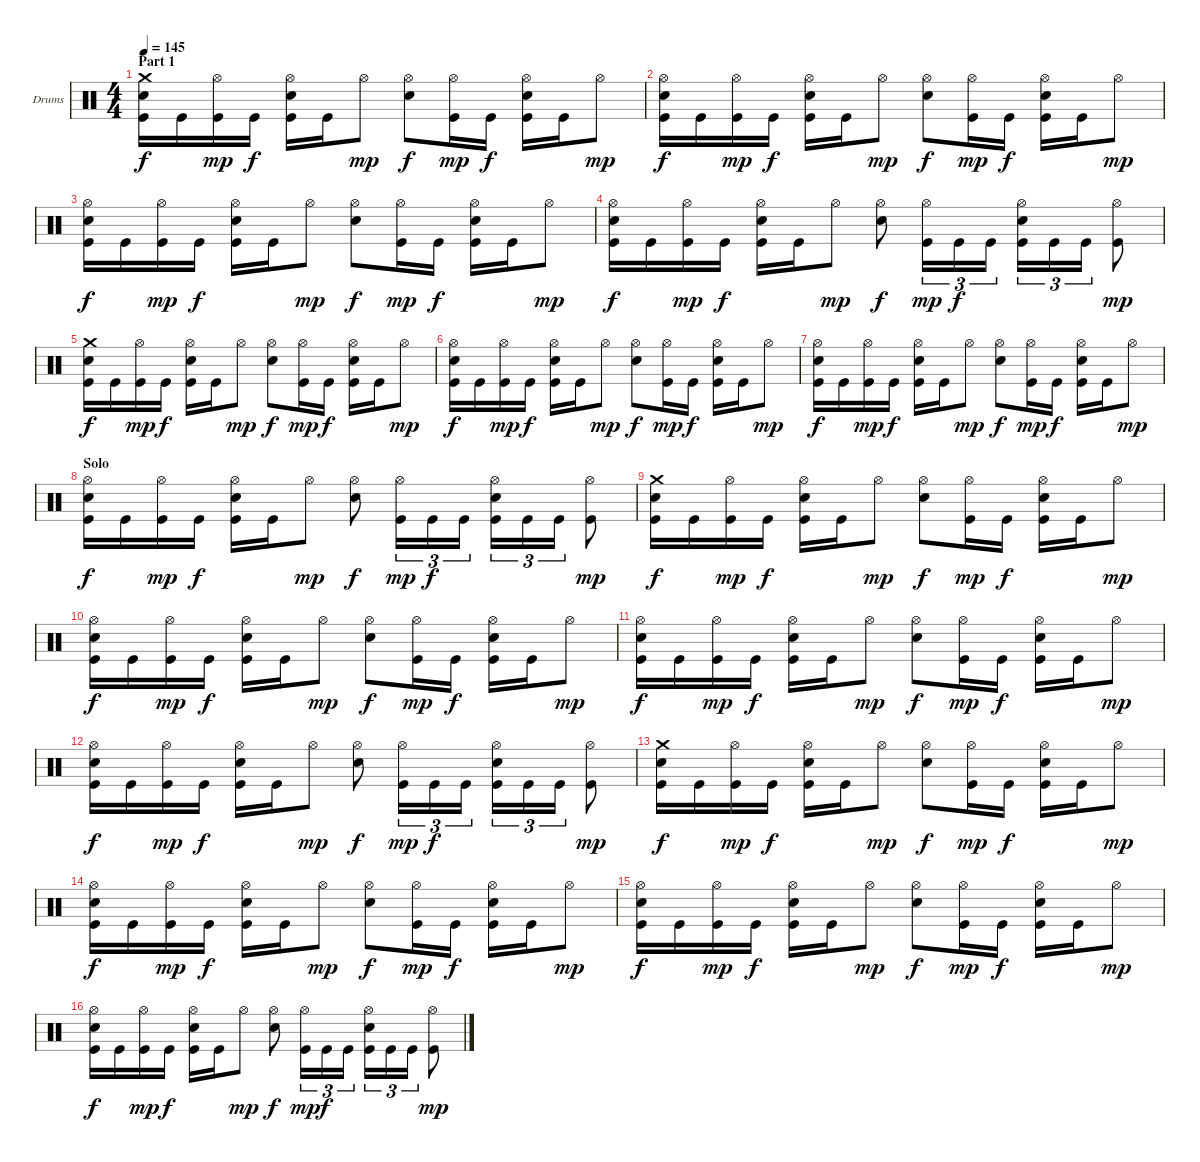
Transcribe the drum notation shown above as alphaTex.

\bracketExtendMode groupsimilarinstruments
\firstSystemTrackNameOrientation horizontal
\otherSystemsTrackNameOrientation horizontal
\track ("Drumkit" "Drums") {instrument percussion}
\staff {score}
\articulation defaults
\ts (4 4)
\section ("" "Part 1")
\tempo 145
\clef neutral
\ks c
("Crash medium (hit)" "Snare (hit) 2" "Kick (hit)").16{dy f} "Kick (hit)".16 ("Hi-Hat (open)" "Kick (hit)").16{dy mp} "Kick (hit)".16{dy f} ("Hi-Hat (open)" "Snare (hit) 2" "Kick (hit)").16 "Kick (hit)".16 "Hi-Hat (open)".8{dy mp} ("Hi-Hat (open)" "Snare (hit) 2").8{dy f} ("Hi-Hat (open)" "Kick (hit)").16{dy mp} "Kick (hit)".16{dy f} ("Hi-Hat (open)" "Snare (hit) 2" "Kick (hit)").16 "Kick (hit)".16 "Hi-Hat (open)".8{dy mp} |
("Hi-Hat (open)" "Snare (hit) 2" "Kick (hit)").16{dy f} "Kick (hit)".16 ("Hi-Hat (open)" "Kick (hit)").16{dy mp} "Kick (hit)".16{dy f} ("Hi-Hat (open)" "Snare (hit) 2" "Kick (hit)").16 "Kick (hit)".16 "Hi-Hat (open)".8{dy mp} ("Hi-Hat (open)" "Snare (hit) 2").8{dy f} ("Hi-Hat (open)" "Kick (hit)").16{dy mp} "Kick (hit)".16{dy f} ("Hi-Hat (open)" "Snare (hit) 2" "Kick (hit)").16 "Kick (hit)".16 "Hi-Hat (open)".8{dy mp} |
("Hi-Hat (open)" "Snare (hit) 2" "Kick (hit)").16{dy f} "Kick (hit)".16 ("Hi-Hat (open)" "Kick (hit)").16{dy mp} "Kick (hit)".16{dy f} ("Hi-Hat (open)" "Snare (hit) 2" "Kick (hit)").16 "Kick (hit)".16 "Hi-Hat (open)".8{dy mp} ("Hi-Hat (open)" "Snare (hit) 2").8{dy f} ("Hi-Hat (open)" "Kick (hit)").16{dy mp} "Kick (hit)".16{dy f} ("Hi-Hat (open)" "Snare (hit) 2" "Kick (hit)").16 "Kick (hit)".16 "Hi-Hat (open)".8{dy mp} |
("Hi-Hat (open)" "Snare (hit) 2" "Kick (hit)").16{dy f} "Kick (hit)".16 ("Hi-Hat (open)" "Kick (hit)").16{dy mp} "Kick (hit)".16{dy f} ("Hi-Hat (open)" "Snare (hit) 2" "Kick (hit)").16 "Kick (hit)".16 "Hi-Hat (open)".8{dy mp} ("Hi-Hat (open)" "Snare (hit) 2").8{dy f} ("Hi-Hat (open)" "Kick (hit)").16{tu (3 2) dy mp} "Kick (hit)".16{tu (3 2) dy f} "Kick (hit)".16{tu (3 2)} ("Hi-Hat (open)" "Snare (hit) 2" "Kick (hit)").16{tu (3 2)} "Kick (hit)".16{tu (3 2)} "Kick (hit)".16{tu (3 2)} ("Hi-Hat (open)" "Kick (hit)").8{dy mp} |
("Crash medium (hit)" "Snare (hit) 2" "Kick (hit)").16{dy f} "Kick (hit)".16 ("Hi-Hat (open)" "Kick (hit)").16{dy mp} "Kick (hit)".16{dy f} ("Hi-Hat (open)" "Snare (hit) 2" "Kick (hit)").16 "Kick (hit)".16 "Hi-Hat (open)".8{dy mp} ("Hi-Hat (open)" "Snare (hit) 2").8{dy f} ("Hi-Hat (open)" "Kick (hit)").16{dy mp} "Kick (hit)".16{dy f} ("Hi-Hat (open)" "Snare (hit) 2" "Kick (hit)").16 "Kick (hit)".16 "Hi-Hat (open)".8{dy mp} |
("Hi-Hat (open)" "Snare (hit) 2" "Kick (hit)").16{dy f} "Kick (hit)".16 ("Hi-Hat (open)" "Kick (hit)").16{dy mp} "Kick (hit)".16{dy f} ("Hi-Hat (open)" "Snare (hit) 2" "Kick (hit)").16 "Kick (hit)".16 "Hi-Hat (open)".8{dy mp} ("Hi-Hat (open)" "Snare (hit) 2").8{dy f} ("Hi-Hat (open)" "Kick (hit)").16{dy mp} "Kick (hit)".16{dy f} ("Hi-Hat (open)" "Snare (hit) 2" "Kick (hit)").16 "Kick (hit)".16 "Hi-Hat (open)".8{dy mp} |
("Hi-Hat (open)" "Snare (hit) 2" "Kick (hit)").16{dy f} "Kick (hit)".16 ("Hi-Hat (open)" "Kick (hit)").16{dy mp} "Kick (hit)".16{dy f} ("Hi-Hat (open)" "Snare (hit) 2" "Kick (hit)").16 "Kick (hit)".16 "Hi-Hat (open)".8{dy mp} ("Hi-Hat (open)" "Snare (hit) 2").8{dy f} ("Hi-Hat (open)" "Kick (hit)").16{dy mp} "Kick (hit)".16{dy f} ("Hi-Hat (open)" "Snare (hit) 2" "Kick (hit)").16 "Kick (hit)".16 "Hi-Hat (open)".8{dy mp} |
\section ("" "Solo")
("Hi-Hat (open)" "Snare (hit) 2" "Kick (hit)").16{dy f} "Kick (hit)".16 ("Hi-Hat (open)" "Kick (hit)").16{dy mp} "Kick (hit)".16{dy f} ("Hi-Hat (open)" "Snare (hit) 2" "Kick (hit)").16 "Kick (hit)".16 "Hi-Hat (open)".8{dy mp} ("Hi-Hat (open)" "Snare (hit) 2").8{dy f} ("Hi-Hat (open)" "Kick (hit)").16{tu (3 2) dy mp} "Kick (hit)".16{tu (3 2) dy f} "Kick (hit)".16{tu (3 2)} ("Hi-Hat (open)" "Snare (hit) 2" "Kick (hit)").16{tu (3 2)} "Kick (hit)".16{tu (3 2)} "Kick (hit)".16{tu (3 2)} ("Hi-Hat (open)" "Kick (hit)").8{dy mp} |
("Crash medium (hit)" "Snare (hit) 2" "Kick (hit)").16{dy f} "Kick (hit)".16 ("Hi-Hat (open)" "Kick (hit)").16{dy mp} "Kick (hit)".16{dy f} ("Hi-Hat (open)" "Snare (hit) 2" "Kick (hit)").16 "Kick (hit)".16 "Hi-Hat (open)".8{dy mp} ("Hi-Hat (open)" "Snare (hit) 2").8{dy f} ("Hi-Hat (open)" "Kick (hit)").16{dy mp} "Kick (hit)".16{dy f} ("Hi-Hat (open)" "Snare (hit) 2" "Kick (hit)").16 "Kick (hit)".16 "Hi-Hat (open)".8{dy mp} |
("Hi-Hat (open)" "Snare (hit) 2" "Kick (hit)").16{dy f} "Kick (hit)".16 ("Hi-Hat (open)" "Kick (hit)").16{dy mp} "Kick (hit)".16{dy f} ("Hi-Hat (open)" "Snare (hit) 2" "Kick (hit)").16 "Kick (hit)".16 "Hi-Hat (open)".8{dy mp} ("Hi-Hat (open)" "Snare (hit) 2").8{dy f} ("Hi-Hat (open)" "Kick (hit)").16{dy mp} "Kick (hit)".16{dy f} ("Hi-Hat (open)" "Snare (hit) 2" "Kick (hit)").16 "Kick (hit)".16 "Hi-Hat (open)".8{dy mp} |
("Hi-Hat (open)" "Snare (hit) 2" "Kick (hit)").16{dy f} "Kick (hit)".16 ("Hi-Hat (open)" "Kick (hit)").16{dy mp} "Kick (hit)".16{dy f} ("Hi-Hat (open)" "Snare (hit) 2" "Kick (hit)").16 "Kick (hit)".16 "Hi-Hat (open)".8{dy mp} ("Hi-Hat (open)" "Snare (hit) 2").8{dy f} ("Hi-Hat (open)" "Kick (hit)").16{dy mp} "Kick (hit)".16{dy f} ("Hi-Hat (open)" "Snare (hit) 2" "Kick (hit)").16 "Kick (hit)".16 "Hi-Hat (open)".8{dy mp} |
("Hi-Hat (open)" "Snare (hit) 2" "Kick (hit)").16{dy f} "Kick (hit)".16 ("Hi-Hat (open)" "Kick (hit)").16{dy mp} "Kick (hit)".16{dy f} ("Hi-Hat (open)" "Snare (hit) 2" "Kick (hit)").16 "Kick (hit)".16 "Hi-Hat (open)".8{dy mp} ("Hi-Hat (open)" "Snare (hit) 2").8{dy f} ("Hi-Hat (open)" "Kick (hit)").16{tu (3 2) dy mp} "Kick (hit)".16{tu (3 2) dy f} "Kick (hit)".16{tu (3 2)} ("Hi-Hat (open)" "Snare (hit) 2" "Kick (hit)").16{tu (3 2)} "Kick (hit)".16{tu (3 2)} "Kick (hit)".16{tu (3 2)} ("Hi-Hat (open)" "Kick (hit)").8{dy mp} |
("Crash medium (hit)" "Snare (hit) 2" "Kick (hit)").16{dy f} "Kick (hit)".16 ("Hi-Hat (open)" "Kick (hit)").16{dy mp} "Kick (hit)".16{dy f} ("Hi-Hat (open)" "Snare (hit) 2" "Kick (hit)").16 "Kick (hit)".16 "Hi-Hat (open)".8{dy mp} ("Hi-Hat (open)" "Snare (hit) 2").8{dy f} ("Hi-Hat (open)" "Kick (hit)").16{dy mp} "Kick (hit)".16{dy f} ("Hi-Hat (open)" "Snare (hit) 2" "Kick (hit)").16 "Kick (hit)".16 "Hi-Hat (open)".8{dy mp} |
("Hi-Hat (open)" "Snare (hit) 2" "Kick (hit)").16{dy f} "Kick (hit)".16 ("Hi-Hat (open)" "Kick (hit)").16{dy mp} "Kick (hit)".16{dy f} ("Hi-Hat (open)" "Snare (hit) 2" "Kick (hit)").16 "Kick (hit)".16 "Hi-Hat (open)".8{dy mp} ("Hi-Hat (open)" "Snare (hit) 2").8{dy f} ("Hi-Hat (open)" "Kick (hit)").16{dy mp} "Kick (hit)".16{dy f} ("Hi-Hat (open)" "Snare (hit) 2" "Kick (hit)").16 "Kick (hit)".16 "Hi-Hat (open)".8{dy mp} |
("Hi-Hat (open)" "Snare (hit) 2" "Kick (hit)").16{dy f} "Kick (hit)".16 ("Hi-Hat (open)" "Kick (hit)").16{dy mp} "Kick (hit)".16{dy f} ("Hi-Hat (open)" "Snare (hit) 2" "Kick (hit)").16 "Kick (hit)".16 "Hi-Hat (open)".8{dy mp} ("Hi-Hat (open)" "Snare (hit) 2").8{dy f} ("Hi-Hat (open)" "Kick (hit)").16{dy mp} "Kick (hit)".16{dy f} ("Hi-Hat (open)" "Snare (hit) 2" "Kick (hit)").16 "Kick (hit)".16 "Hi-Hat (open)".8{dy mp} |
("Hi-Hat (open)" "Snare (hit) 2" "Kick (hit)").16{dy f} "Kick (hit)".16 ("Hi-Hat (open)" "Kick (hit)").16{dy mp} "Kick (hit)".16{dy f} ("Hi-Hat (open)" "Snare (hit) 2" "Kick (hit)").16 "Kick (hit)".16 "Hi-Hat (open)".8{dy mp} ("Hi-Hat (open)" "Snare (hit) 2").8{dy f} ("Hi-Hat (open)" "Kick (hit)").16{tu (3 2) dy mp} "Kick (hit)".16{tu (3 2) dy f} "Kick (hit)".16{tu (3 2)} ("Hi-Hat (open)" "Snare (hit) 2" "Kick (hit)").16{tu (3 2)} "Kick (hit)".16{tu (3 2)} "Kick (hit)".16{tu (3 2)} ("Hi-Hat (open)" "Kick (hit)").8{dy mp}
